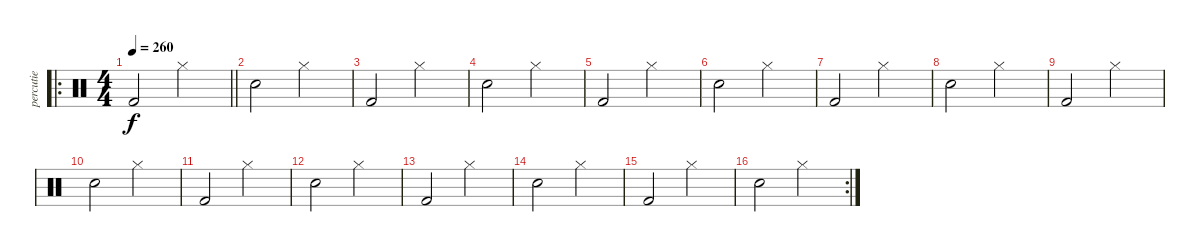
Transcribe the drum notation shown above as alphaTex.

\track ("percutie" "percutie") {instrument percussion}
\staff {score}
\articulation defaults
\ro
\ts (4 4)
\tempo 260
\clef neutral
\barLineRight lightlight
\ks c "Kick (hit) 2".2{dy f} "Hi-Hat (closed)".2
|
"Snare (hit) 2".2 "Hi-Hat (closed)".2 |
"Kick (hit) 2".2 "Hi-Hat (closed)".2 |
"Snare (hit) 2".2 "Hi-Hat (closed)".2 |
"Kick (hit) 2".2 "Hi-Hat (closed)".2 |
"Snare (hit) 2".2 "Hi-Hat (closed)".2 |
"Kick (hit) 2".2 "Hi-Hat (closed)".2 |
"Snare (hit) 2".2 "Hi-Hat (closed)".2 |
"Kick (hit) 2".2 "Hi-Hat (closed)".2 |
"Snare (hit) 2".2 "Hi-Hat (closed)".2 |
"Kick (hit) 2".2 "Hi-Hat (closed)".2 |
"Snare (hit) 2".2 "Hi-Hat (closed)".2 |
"Kick (hit) 2".2 "Hi-Hat (closed)".2 |
"Snare (hit) 2".2 "Hi-Hat (closed)".2 |
"Kick (hit) 2".2 "Hi-Hat (closed)".2 |
\rc 2 "Snare (hit) 2".2 "Hi-Hat (closed)".2
